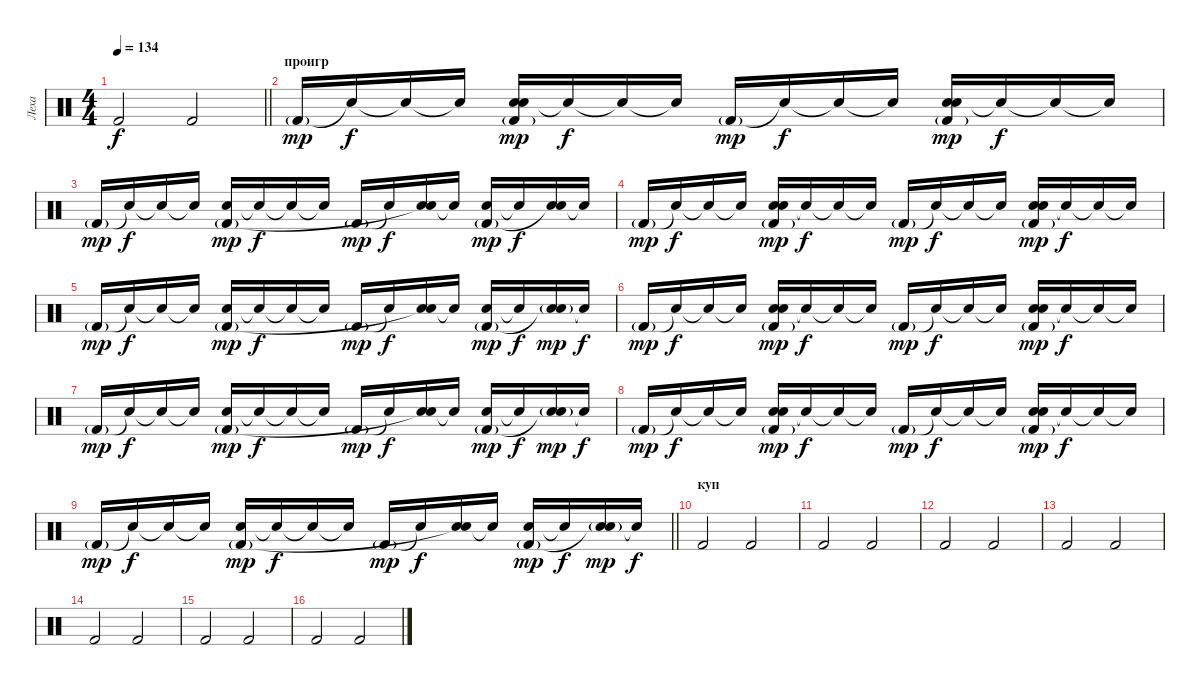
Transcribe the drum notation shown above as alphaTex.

\track ("Леха" "Леха") {instrument percussion}
\staff {score}
\articulation defaults
\ts (4 4)
\tempo 134
\clef neutral
\barLineRight lightlight
\ks c "Kick (hit) 2".2{dy f} "Kick (hit) 2".2
|
\section ("" "проигр")
"Kick (hit) 2"{g}.16{dy mp} "Snare (hit)"{t}.16{dy f} "Snare (hit)"{t}.16 "Snare (hit)"{t}.16 ("Hand Clap (hit)" "Hand Clap (hit)" "Kick (hit) 2"{g}).16{dy mp} "Snare (hit)"{t}.16{dy f} "Snare (hit)"{t}.16 "Snare (hit)"{t}.16 "Kick (hit) 2"{g}.16{dy mp} "Snare (hit)"{t}.16{dy f} "Snare (hit)"{t}.16 "Snare (hit)"{t}.16 ("Hand Clap (hit)" "Hand Clap (hit)" "Kick (hit) 2"{g}).16{dy mp} "Snare (hit)"{t}.16{dy f} "Snare (hit)"{t}.16 "Snare (hit)"{t}.16 |
"Kick (hit) 2"{g}.16{dy mp} "Snare (hit)"{t}.16{dy f} "Snare (hit)"{t}.16 "Snare (hit)"{t}.16 ("Hand Clap (hit)" "Kick (hit) 2"{g}).16{dy mp} "Snare (hit)"{t}.16{dy f} "Snare (hit)"{t}.16 "Snare (hit)"{t}.16 "Kick (hit) 2"{g}.16{dy mp} "Snare (hit)"{t}.16{dy f} ("Hand Clap (hit)" "Snare (hit)"{t}).16 "Snare (hit)"{t}.16 ("Hand Clap (hit)" "Kick (hit) 2"{g}).16{dy mp} "Snare (hit)"{t}.16{dy f} ("Hand Clap (hit)" "Snare (hit)"{t}).16 "Snare (hit)"{t}.16 |
"Kick (hit) 2"{g}.16{dy mp} "Snare (hit)"{t}.16{dy f} "Snare (hit)"{t}.16 "Snare (hit)"{t}.16 ("Hand Clap (hit)" "Hand Clap (hit)" "Kick (hit) 2"{g}).16{dy mp} "Snare (hit)"{t}.16{dy f} "Snare (hit)"{t}.16 "Snare (hit)"{t}.16 "Kick (hit) 2"{g}.16{dy mp} "Snare (hit)"{t}.16{dy f} "Snare (hit)"{t}.16 "Snare (hit)"{t}.16 ("Hand Clap (hit)" "Hand Clap (hit)" "Kick (hit) 2"{g}).16{dy mp} "Snare (hit)"{t}.16{dy f} "Snare (hit)"{t}.16 "Snare (hit)"{t}.16 |
"Kick (hit) 2"{g}.16{dy mp} "Snare (hit)"{t}.16{dy f} "Snare (hit)"{t}.16 "Snare (hit)"{t}.16 ("Hand Clap (hit)" "Kick (hit) 2"{g}).16{dy mp} "Snare (hit)"{t}.16{dy f} "Snare (hit)"{t}.16 "Snare (hit)"{t}.16 "Kick (hit) 2"{g}.16{dy mp} "Snare (hit)"{t}.16{dy f} ("Hand Clap (hit)" "Snare (hit)"{t}).16 "Snare (hit)"{t}.16 ("Hand Clap (hit)" "Kick (hit) 2"{g}).16{dy mp} "Snare (hit)"{t}.16{dy f} ("Hand Clap (hit)"{g} "Snare (hit)"{t}).16{dy mp} "Snare (hit)"{t}.16{dy f} |
"Kick (hit) 2"{g}.16{dy mp} "Snare (hit)"{t}.16{dy f} "Snare (hit)"{t}.16 "Snare (hit)"{t}.16 ("Hand Clap (hit)" "Hand Clap (hit)" "Kick (hit) 2"{g}).16{dy mp} "Snare (hit)"{t}.16{dy f} "Snare (hit)"{t}.16 "Snare (hit)"{t}.16 "Kick (hit) 2"{g}.16{dy mp} "Snare (hit)"{t}.16{dy f} "Snare (hit)"{t}.16 "Snare (hit)"{t}.16 ("Hand Clap (hit)" "Hand Clap (hit)" "Kick (hit) 2"{g}).16{dy mp} "Snare (hit)"{t}.16{dy f} "Snare (hit)"{t}.16 "Snare (hit)"{t}.16 |
"Kick (hit) 2"{g}.16{dy mp} "Snare (hit)"{t}.16{dy f} "Snare (hit)"{t}.16 "Snare (hit)"{t}.16 ("Hand Clap (hit)" "Kick (hit) 2"{g}).16{dy mp} "Snare (hit)"{t}.16{dy f} "Snare (hit)"{t}.16 "Snare (hit)"{t}.16 "Kick (hit) 2"{g}.16{dy mp} "Snare (hit)"{t}.16{dy f} ("Hand Clap (hit)" "Snare (hit)"{t}).16 "Snare (hit)"{t}.16 ("Hand Clap (hit)" "Kick (hit) 2"{g}).16{dy mp} "Snare (hit)"{t}.16{dy f} ("Hand Clap (hit)"{g} "Snare (hit)"{t}).16{dy mp} "Snare (hit)"{t}.16{dy f} |
"Kick (hit) 2"{g}.16{dy mp} "Snare (hit)"{t}.16{dy f} "Snare (hit)"{t}.16 "Snare (hit)"{t}.16 ("Hand Clap (hit)" "Hand Clap (hit)" "Kick (hit) 2"{g}).16{dy mp} "Snare (hit)"{t}.16{dy f} "Snare (hit)"{t}.16 "Snare (hit)"{t}.16 "Kick (hit) 2"{g}.16{dy mp} "Snare (hit)"{t}.16{dy f} "Snare (hit)"{t}.16 "Snare (hit)"{t}.16 ("Hand Clap (hit)" "Hand Clap (hit)" "Kick (hit) 2"{g}).16{dy mp} "Snare (hit)"{t}.16{dy f} "Snare (hit)"{t}.16 "Snare (hit)"{t}.16 |
\barLineRight lightlight "Kick (hit) 2"{g}.16{dy mp} "Snare (hit)"{t}.16{dy f} "Snare (hit)"{t}.16 "Snare (hit)"{t}.16
("Hand Clap (hit)" "Kick (hit) 2"{g}).16{dy mp} "Snare (hit)"{t}.16{dy f} "Snare (hit)"{t}.16 "Snare (hit)"{t}.16 "Kick (hit) 2"{g}.16{dy mp} "Snare (hit)"{t}.16{dy f} ("Hand Clap (hit)" "Snare (hit)"{t}).16 "Snare (hit)"{t}.16 ("Hand Clap (hit)" "Kick (hit) 2"{g}).16{dy mp} "Snare (hit)"{t}.16{dy f} ("Hand Clap (hit)"{g} "Snare (hit)"{t}).16{dy mp} "Snare (hit)"{t}.16{dy f} |
\section ("" "куп")
"Kick (hit) 2".2 "Kick (hit) 2".2 |
"Kick (hit) 2".2 "Kick (hit) 2".2 |
"Kick (hit) 2".2 "Kick (hit) 2".2 |
"Kick (hit) 2".2 "Kick (hit) 2".2 |
"Kick (hit) 2".2 "Kick (hit) 2".2 |
"Kick (hit) 2".2 "Kick (hit) 2".2 |
"Kick (hit) 2".2 "Kick (hit) 2".2
